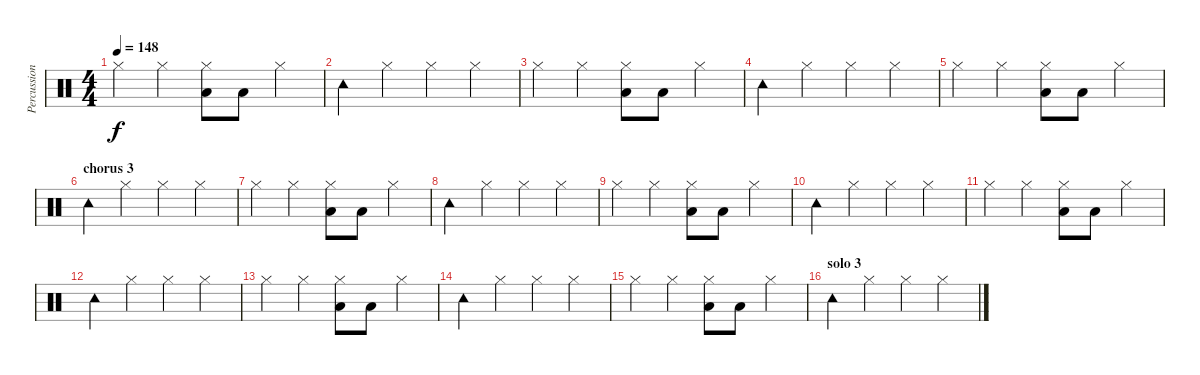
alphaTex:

\track ("Percussions" "Percussion") {instrument percussion}
\staff {score}
\articulation defaults
\ts (4 4)
\tempo 148
\clef neutral
\ks c "Hi-Hat (closed)".4{dy f} "Hi-Hat (closed)".4
("Hi-Hat (closed)" "Low Tom (hit)").8 "Low Tom (hit)".8 "Hi-Hat (closed)".4 |
"Tambourine (hit)".4 "Hi-Hat (closed)".4 "Hi-Hat (closed)".4 "Hi-Hat (closed)".4 |
"Hi-Hat (closed)".4 "Hi-Hat (closed)".4 ("Hi-Hat (closed)" "Low Tom (hit)").8 "Low Tom (hit)".8 "Hi-Hat (closed)".4 |
"Tambourine (hit)".4 "Hi-Hat (closed)".4 "Hi-Hat (closed)".4 "Hi-Hat (closed)".4 |
"Hi-Hat (closed)".4 "Hi-Hat (closed)".4 ("Hi-Hat (closed)" "Low Tom (hit)").8 "Low Tom (hit)".8 "Hi-Hat (closed)".4 |
\section ("" "chorus 3")
"Tambourine (hit)".4 "Hi-Hat (closed)".4 "Hi-Hat (closed)".4 "Hi-Hat (closed)".4 |
"Hi-Hat (closed)".4 "Hi-Hat (closed)".4 ("Hi-Hat (closed)" "Low Tom (hit)").8 "Low Tom (hit)".8 "Hi-Hat (closed)".4 |
"Tambourine (hit)".4 "Hi-Hat (closed)".4 "Hi-Hat (closed)".4 "Hi-Hat (closed)".4 |
"Hi-Hat (closed)".4 "Hi-Hat (closed)".4 ("Hi-Hat (closed)" "Low Tom (hit)").8 "Low Tom (hit)".8 "Hi-Hat (closed)".4 |
"Tambourine (hit)".4 "Hi-Hat (closed)".4 "Hi-Hat (closed)".4 "Hi-Hat (closed)".4 |
"Hi-Hat (closed)".4 "Hi-Hat (closed)".4 ("Hi-Hat (closed)" "Low Tom (hit)").8 "Low Tom (hit)".8 "Hi-Hat (closed)".4 |
"Tambourine (hit)".4 "Hi-Hat (closed)".4 "Hi-Hat (closed)".4 "Hi-Hat (closed)".4 |
"Hi-Hat (closed)".4 "Hi-Hat (closed)".4 ("Hi-Hat (closed)" "Low Tom (hit)").8 "Low Tom (hit)".8 "Hi-Hat (closed)".4 |
"Tambourine (hit)".4 "Hi-Hat (closed)".4 "Hi-Hat (closed)".4 "Hi-Hat (closed)".4 |
"Hi-Hat (closed)".4 "Hi-Hat (closed)".4 ("Hi-Hat (closed)" "Low Tom (hit)").8 "Low Tom (hit)".8 "Hi-Hat (closed)".4 |
\section ("" "solo 3")
"Tambourine (hit)".4 "Hi-Hat (closed)".4 "Hi-Hat (closed)".4 "Hi-Hat (closed)".4
